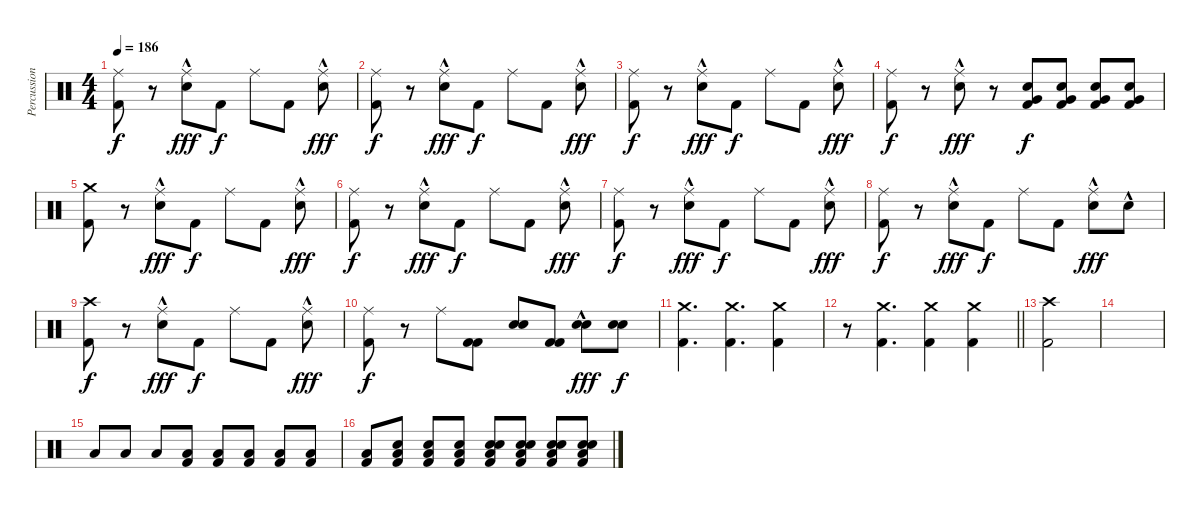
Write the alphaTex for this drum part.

\track ("Percussion" "Percussion") {instrument percussion}
\staff {score}
\articulation defaults
\ts (4 4)
\tempo 186
\clef neutral
\ks c
("Kick (hit) 2" "Ride (middle)").8{dy f} r.8 ("Electric Snare (hit)"{hac} "Ride (middle)").8{dy fff} "Kick (hit) 2".8{dy f} "Ride (middle)".8 "Kick (hit) 2".8 ("Electric Snare (hit)"{hac} "Ride (middle)").8{dy fff} |
("Kick (hit) 2" "Ride (middle)").8{dy f} r.8 ("Electric Snare (hit)"{hac} "Ride (middle)").8{dy fff} "Kick (hit) 2".8{dy f} "Ride (middle)".8 "Kick (hit) 2".8 ("Electric Snare (hit)"{hac} "Ride (middle)").8{dy fff} |
("Kick (hit) 2" "Ride (middle)").8{dy f} r.8 ("Electric Snare (hit)"{hac} "Ride (middle)").8{dy fff} "Kick (hit) 2".8{dy f} "Ride (middle)".8 "Kick (hit) 2".8 ("Electric Snare (hit)"{hac} "Ride (middle)").8{dy fff} |
("Kick (hit) 2" "Ride (middle)").8{dy f} r.8 ("Electric Snare (hit)"{hac} "Ride (middle)").8{dy fff} r.8 ("Kick (hit) 2" "Electric Snare (hit)" "Very Low Tom (hit)").8{dy f} ("Kick (hit) 2" "Electric Snare (hit)" "Very Low Tom (hit)").8 ("Kick (hit) 2" "Electric Snare (hit)" "Very Low Tom (hit)").8 ("Kick (hit) 2" "Electric Snare (hit)" "Very Low Tom (hit)").8 |
("Kick (hit) 2" "Crash medium (hit)").8 r.8 ("Electric Snare (hit)"{hac} "Ride (middle)").8{dy fff} "Kick (hit) 2".8{dy f} "Ride (middle)".8 "Kick (hit) 2".8 ("Electric Snare (hit)"{hac} "Ride (middle)").8{dy fff} |
("Kick (hit) 2" "Ride (middle)").8{dy f} r.8 ("Electric Snare (hit)"{hac} "Ride (middle)").8{dy fff} "Kick (hit) 2".8{dy f} "Ride (middle)".8 "Kick (hit) 2".8 ("Electric Snare (hit)"{hac} "Ride (middle)").8{dy fff} |
("Kick (hit) 2" "Ride (middle)").8{dy f} r.8 ("Electric Snare (hit)"{hac} "Ride (middle)").8{dy fff} "Kick (hit) 2".8{dy f} "Ride (middle)".8 "Kick (hit) 2".8 ("Electric Snare (hit)"{hac} "Ride (middle)").8{dy fff} |
("Kick (hit) 2" "Ride (middle)").8{dy f} r.8 ("Electric Snare (hit)"{hac} "Ride (middle)").8{dy fff} "Kick (hit) 2".8{dy f} "Ride (middle)".8 "Kick (hit) 2".8 ("Electric Snare (hit)"{hac} "Ride (middle)").8{dy fff} "Electric Snare (hit)"{hac}.8 |
("Kick (hit) 2" "Crash high (hit)").8{dy f} r.8 ("Electric Snare (hit)"{hac} "Ride (middle)").8{dy fff} "Kick (hit) 2".8{dy f} "Ride (middle)".8 "Kick (hit) 2".8 ("Electric Snare (hit)"{hac} "Ride (middle)").8{dy fff} |
("Ride (middle)" "Kick (hit) 2").8{dy f} r.8 "Ride (middle)".8 ("Kick (hit) 2" "Kick (hit) 2").8 ("Electric Snare (hit)" "Electric Snare (hit)").8 ("Kick (hit) 2" "Kick (hit) 2").8 ("Electric Snare (hit)" "Electric Snare (hit)"{hac}).8{dy fff} ("Electric Snare (hit)" "Electric Snare (hit)").8{dy f} |
("Crash medium (hit)" "Kick (hit) 2").4{d} ("Crash medium (hit)" "Kick (hit) 2").4{d} ("Crash medium (hit)" "Kick (hit) 2").4 |
\barLineRight lightlight
r.8 ("Crash medium (hit)" "Kick (hit) 2").4{d} ("Crash medium (hit)" "Kick (hit) 2").4 ("Crash medium (hit)" "Kick (hit) 2").4 |
("Crash high (hit)" "Kick (hit) 2").2 |
|
"Low Floor Tom (hit)".8 "Low Floor Tom (hit)".8 "Low Floor Tom (hit)".8 ("Kick (hit) 2" "Low Floor Tom (hit)").8 ("Kick (hit) 2" "Low Floor Tom (hit)").8 ("Kick (hit) 2" "Low Floor Tom (hit)").8 ("Kick (hit) 2" "Low Floor Tom (hit)").8 ("Kick (hit) 2" "Low Floor Tom (hit)").8 |
("Kick (hit) 2" "Low Floor Tom (hit)").8 ("Electric Snare (hit)" "Kick (hit) 2" "Low Floor Tom (hit)").8 ("Electric Snare (hit)" "Kick (hit) 2" "Low Floor Tom (hit)").8 ("Electric Snare (hit)" "Kick (hit) 2" "Low Floor Tom (hit)").8 ("Electric Snare (hit)" "Electric Snare (hit)" "Kick (hit) 2" "Low Floor Tom (hit)").8 ("Electric Snare (hit)" "Electric Snare (hit)" "Kick (hit) 2" "Low Floor Tom (hit)").8 ("Electric Snare (hit)" "Electric Snare (hit)" "Kick (hit) 2" "Low Floor Tom (hit)").8 ("Electric Snare (hit)" "Electric Snare (hit)" "Kick (hit) 2" "Low Floor Tom (hit)").8
